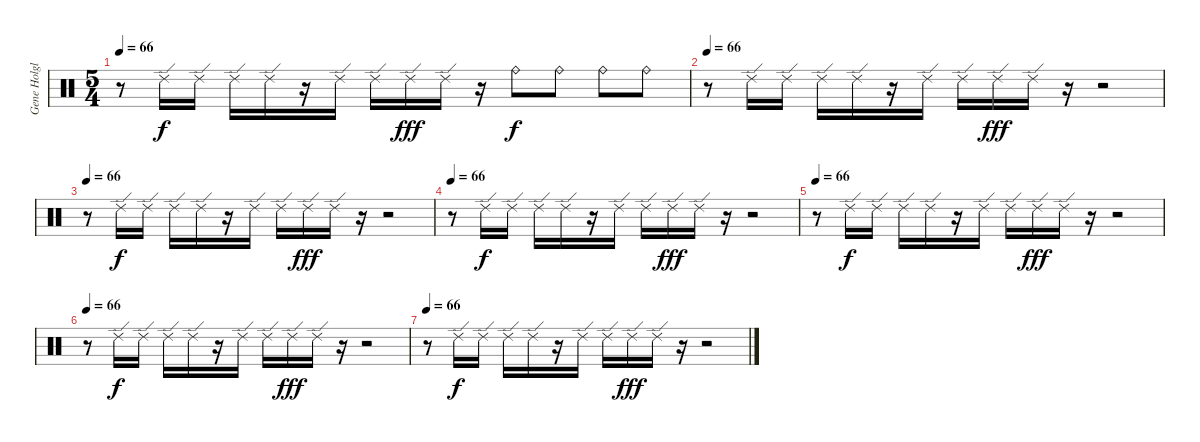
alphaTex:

\track ("Gene Holglan" "Gene Holgl") {instrument percussion}
\staff {score}
\articulation defaults
\ts (5 4)
\tempo 66
\clef neutral
\ks c
r.8{dy fff} "Ride (edge) 2".16{dy f} "Ride (edge) 2".16 "Ride (edge) 2".16 "Ride (edge) 2".16 r.16 "Ride (edge) 2".16 "Ride (edge) 2".16 "Ride (edge) 2".16{dy fff} "Ride (edge) 2".16 r.16 "Ride (bell)".8{dy f} "Ride (bell)".8 "Ride (bell)".8 "Ride (bell)".8 |
\tempo 66
r.8 "Ride (edge) 2".16 "Ride (edge) 2".16 "Ride (edge) 2".16 "Ride (edge) 2".16 r.16 "Ride (edge) 2".16 "Ride (edge) 2".16 "Ride (edge) 2".16{dy fff} "Ride (edge) 2".16 r.16 r.2 |
\tempo 66
r.8 "Ride (edge) 2".16{dy f} "Ride (edge) 2".16 "Ride (edge) 2".16 "Ride (edge) 2".16 r.16 "Ride (edge) 2".16 "Ride (edge) 2".16 "Ride (edge) 2".16{dy fff} "Ride (edge) 2".16 r.16 r.2 |
\tempo 66
r.8 "Ride (edge) 2".16{dy f} "Ride (edge) 2".16 "Ride (edge) 2".16 "Ride (edge) 2".16 r.16 "Ride (edge) 2".16 "Ride (edge) 2".16 "Ride (edge) 2".16{dy fff} "Ride (edge) 2".16 r.16 r.2 |
\tempo 66
r.8 "Ride (edge) 2".16{dy f} "Ride (edge) 2".16 "Ride (edge) 2".16 "Ride (edge) 2".16 r.16 "Ride (edge) 2".16 "Ride (edge) 2".16 "Ride (edge) 2".16{dy fff} "Ride (edge) 2".16 r.16 r.2 |
\tempo 66
r.8 "Ride (edge) 2".16{dy f} "Ride (edge) 2".16 "Ride (edge) 2".16 "Ride (edge) 2".16 r.16 "Ride (edge) 2".16 "Ride (edge) 2".16 "Ride (edge) 2".16{dy fff} "Ride (edge) 2".16 r.16 r.2 |
\tempo 66
r.8 "Ride (edge) 2".16{dy f} "Ride (edge) 2".16 "Ride (edge) 2".16 "Ride (edge) 2".16 r.16 "Ride (edge) 2".16 "Ride (edge) 2".16 "Ride (edge) 2".16{dy fff} "Ride (edge) 2".16 r.16 r.2
